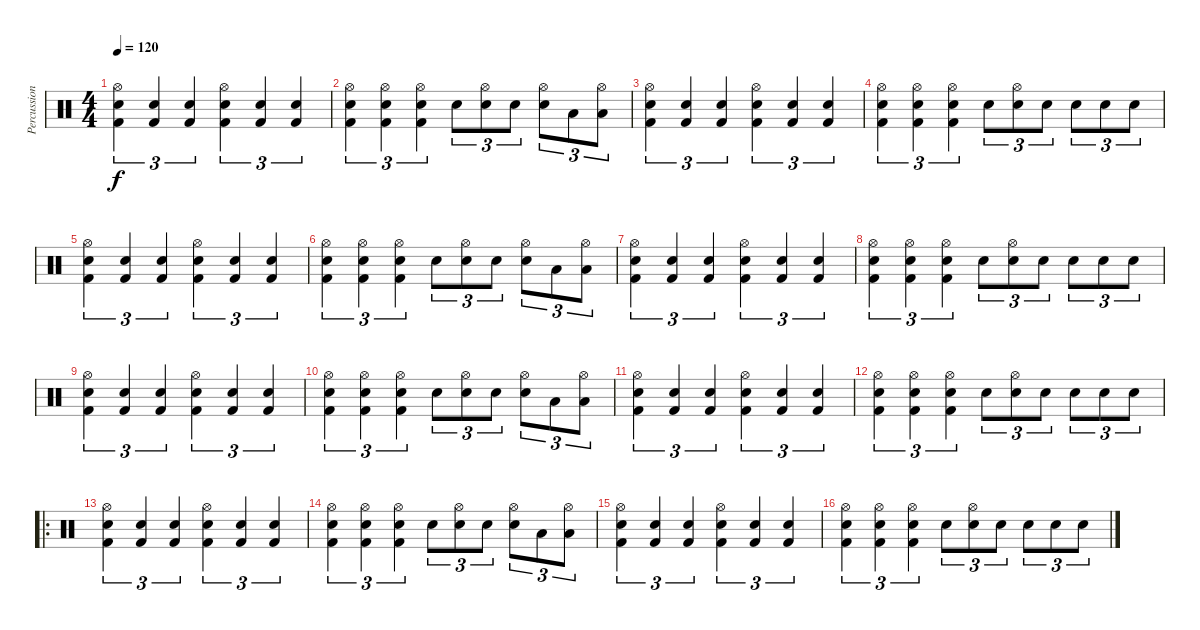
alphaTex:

\track ("Percussion" "Percussion") {instrument percussion}
\staff {score}
\articulation defaults
\ts (4 4)
\tempo 120
\clef neutral
\ks c
("Hi-Hat (open)" "Snare (hit) 2" "Kick (hit) 2").4{tu (3 2) dy f volume 4} ("Electric Snare (hit)" "Kick (hit) 2").4{tu (3 2)} ("Electric Snare (hit)" "Kick (hit) 2").4{tu (3 2)} ("Hi-Hat (open)" "Snare (hit) 2" "Kick (hit) 2").4{tu (3 2)} ("Electric Snare (hit)" "Kick (hit) 2").4{tu (3 2)} ("Electric Snare (hit)" "Kick (hit) 2").4{tu (3 2)} |
("Hi-Hat (open)" "Snare (hit) 2" "Kick (hit) 2").4{tu (3 2)} ("Hi-Hat (open)" "Snare (hit) 2" "Kick (hit) 2").4{tu (3 2)} ("Hi-Hat (open)" "Snare (hit) 2" "Kick (hit) 2").4{tu (3 2)} "Electric Snare (hit)".8{tu (3 2)} ("Hi-Hat (open)" "Electric Snare (hit)").8{tu (3 2)} "Snare (hit) 2".8{tu (3 2)} ("Hi-Hat (open)" "Snare (hit) 2").8{tu (3 2)} "Low Floor Tom (hit)".8{tu (3 2)} ("Hi-Hat (open)" "Low Floor Tom (hit)").8{tu (3 2)} |
("Hi-Hat (open)" "Snare (hit) 2" "Kick (hit) 2").4{tu (3 2)} ("Electric Snare (hit)" "Kick (hit) 2").4{tu (3 2)} ("Electric Snare (hit)" "Kick (hit) 2").4{tu (3 2)} ("Hi-Hat (open)" "Snare (hit) 2" "Kick (hit) 2").4{tu (3 2)} ("Electric Snare (hit)" "Kick (hit) 2").4{tu (3 2)} ("Electric Snare (hit)" "Kick (hit) 2").4{tu (3 2)} |
("Hi-Hat (open)" "Snare (hit) 2" "Kick (hit) 2").4{tu (3 2)} ("Hi-Hat (open)" "Snare (hit) 2" "Kick (hit) 2").4{tu (3 2)} ("Hi-Hat (open)" "Snare (hit) 2" "Kick (hit) 2").4{tu (3 2)} "Electric Snare (hit)".8{tu (3 2)} ("Hi-Hat (open)" "Electric Snare (hit)").8{tu (3 2)} "Snare (hit) 2".8{tu (3 2)} "Snare (hit) 2".8{tu (3 2)} "Snare (hit) 2".8{tu (3 2)} "Snare (hit) 2".8{tu (3 2)} |
("Hi-Hat (open)" "Snare (hit) 2" "Kick (hit) 2").4{tu (3 2) volume 7} ("Electric Snare (hit)" "Kick (hit) 2").4{tu (3 2)} ("Electric Snare (hit)" "Kick (hit) 2").4{tu (3 2)} ("Hi-Hat (open)" "Snare (hit) 2" "Kick (hit) 2").4{tu (3 2)} ("Electric Snare (hit)" "Kick (hit) 2").4{tu (3 2)} ("Electric Snare (hit)" "Kick (hit) 2").4{tu (3 2)} |
("Hi-Hat (open)" "Snare (hit) 2" "Kick (hit) 2").4{tu (3 2)} ("Hi-Hat (open)" "Snare (hit) 2" "Kick (hit) 2").4{tu (3 2)} ("Hi-Hat (open)" "Snare (hit) 2" "Kick (hit) 2").4{tu (3 2)} "Electric Snare (hit)".8{tu (3 2)} ("Hi-Hat (open)" "Electric Snare (hit)").8{tu (3 2)} "Snare (hit) 2".8{tu (3 2)} ("Hi-Hat (open)" "Snare (hit) 2").8{tu (3 2)} "Low Floor Tom (hit)".8{tu (3 2)} ("Hi-Hat (open)" "Low Floor Tom (hit)").8{tu (3 2)} |
("Hi-Hat (open)" "Snare (hit) 2" "Kick (hit) 2").4{tu (3 2)} ("Electric Snare (hit)" "Kick (hit) 2").4{tu (3 2)} ("Electric Snare (hit)" "Kick (hit) 2").4{tu (3 2)} ("Hi-Hat (open)" "Snare (hit) 2" "Kick (hit) 2").4{tu (3 2)} ("Electric Snare (hit)" "Kick (hit) 2").4{tu (3 2)} ("Electric Snare (hit)" "Kick (hit) 2").4{tu (3 2)} |
("Hi-Hat (open)" "Snare (hit) 2" "Kick (hit) 2").4{tu (3 2)} ("Hi-Hat (open)" "Snare (hit) 2" "Kick (hit) 2").4{tu (3 2)} ("Hi-Hat (open)" "Snare (hit) 2" "Kick (hit) 2").4{tu (3 2)} "Electric Snare (hit)".8{tu (3 2)} ("Hi-Hat (open)" "Electric Snare (hit)").8{tu (3 2)} "Snare (hit) 2".8{tu (3 2)} "Snare (hit) 2".8{tu (3 2)} "Snare (hit) 2".8{tu (3 2)} "Snare (hit) 2".8{tu (3 2)} |
("Hi-Hat (open)" "Snare (hit) 2" "Kick (hit) 2").4{tu (3 2)} ("Electric Snare (hit)" "Kick (hit) 2").4{tu (3 2)} ("Electric Snare (hit)" "Kick (hit) 2").4{tu (3 2)} ("Hi-Hat (open)" "Snare (hit) 2" "Kick (hit) 2").4{tu (3 2)} ("Electric Snare (hit)" "Kick (hit) 2").4{tu (3 2)} ("Electric Snare (hit)" "Kick (hit) 2").4{tu (3 2)} |
("Hi-Hat (open)" "Snare (hit) 2" "Kick (hit) 2").4{tu (3 2)} ("Hi-Hat (open)" "Snare (hit) 2" "Kick (hit) 2").4{tu (3 2)} ("Hi-Hat (open)" "Snare (hit) 2" "Kick (hit) 2").4{tu (3 2)} "Electric Snare (hit)".8{tu (3 2)} ("Hi-Hat (open)" "Electric Snare (hit)").8{tu (3 2)} "Snare (hit) 2".8{tu (3 2)} ("Hi-Hat (open)" "Snare (hit) 2").8{tu (3 2)} "Low Floor Tom (hit)".8{tu (3 2)} ("Hi-Hat (open)" "Low Floor Tom (hit)").8{tu (3 2)} |
("Hi-Hat (open)" "Snare (hit) 2" "Kick (hit) 2").4{tu (3 2)} ("Electric Snare (hit)" "Kick (hit) 2").4{tu (3 2)} ("Electric Snare (hit)" "Kick (hit) 2").4{tu (3 2)} ("Hi-Hat (open)" "Snare (hit) 2" "Kick (hit) 2").4{tu (3 2)} ("Electric Snare (hit)" "Kick (hit) 2").4{tu (3 2)} ("Electric Snare (hit)" "Kick (hit) 2").4{tu (3 2)} |
("Hi-Hat (open)" "Snare (hit) 2" "Kick (hit) 2").4{tu (3 2)} ("Hi-Hat (open)" "Snare (hit) 2" "Kick (hit) 2").4{tu (3 2)} ("Hi-Hat (open)" "Snare (hit) 2" "Kick (hit) 2").4{tu (3 2)} "Electric Snare (hit)".8{tu (3 2)} ("Hi-Hat (open)" "Electric Snare (hit)").8{tu (3 2)} "Snare (hit) 2".8{tu (3 2)} "Snare (hit) 2".8{tu (3 2)} "Snare (hit) 2".8{tu (3 2)} "Snare (hit) 2".8{tu (3 2)} |
\ro
("Hi-Hat (open)" "Snare (hit) 2" "Kick (hit) 2").4{tu (3 2)} ("Electric Snare (hit)" "Kick (hit) 2").4{tu (3 2)} ("Electric Snare (hit)" "Kick (hit) 2").4{tu (3 2)} ("Hi-Hat (open)" "Snare (hit) 2" "Kick (hit) 2").4{tu (3 2)} ("Electric Snare (hit)" "Kick (hit) 2").4{tu (3 2)} ("Electric Snare (hit)" "Kick (hit) 2").4{tu (3 2)} |
("Hi-Hat (open)" "Snare (hit) 2" "Kick (hit) 2").4{tu (3 2)} ("Hi-Hat (open)" "Snare (hit) 2" "Kick (hit) 2").4{tu (3 2)} ("Hi-Hat (open)" "Snare (hit) 2" "Kick (hit) 2").4{tu (3 2)} "Electric Snare (hit)".8{tu (3 2)} ("Hi-Hat (open)" "Electric Snare (hit)").8{tu (3 2)} "Snare (hit) 2".8{tu (3 2)} ("Hi-Hat (open)" "Snare (hit) 2").8{tu (3 2)} "Low Floor Tom (hit)".8{tu (3 2)} ("Hi-Hat (open)" "Low Floor Tom (hit)").8{tu (3 2)} |
("Hi-Hat (open)" "Snare (hit) 2" "Kick (hit) 2").4{tu (3 2)} ("Electric Snare (hit)" "Kick (hit) 2").4{tu (3 2)} ("Electric Snare (hit)" "Kick (hit) 2").4{tu (3 2)} ("Hi-Hat (open)" "Snare (hit) 2" "Kick (hit) 2").4{tu (3 2)} ("Electric Snare (hit)" "Kick (hit) 2").4{tu (3 2)} ("Electric Snare (hit)" "Kick (hit) 2").4{tu (3 2)} |
("Hi-Hat (open)" "Snare (hit) 2" "Kick (hit) 2").4{tu (3 2)} ("Hi-Hat (open)" "Snare (hit) 2" "Kick (hit) 2").4{tu (3 2)} ("Hi-Hat (open)" "Snare (hit) 2" "Kick (hit) 2").4{tu (3 2)} "Electric Snare (hit)".8{tu (3 2)} ("Hi-Hat (open)" "Electric Snare (hit)").8{tu (3 2)} "Snare (hit) 2".8{tu (3 2)} "Snare (hit) 2".8{tu (3 2)} "Snare (hit) 2".8{tu (3 2)} "Snare (hit) 2".8{tu (3 2)}
